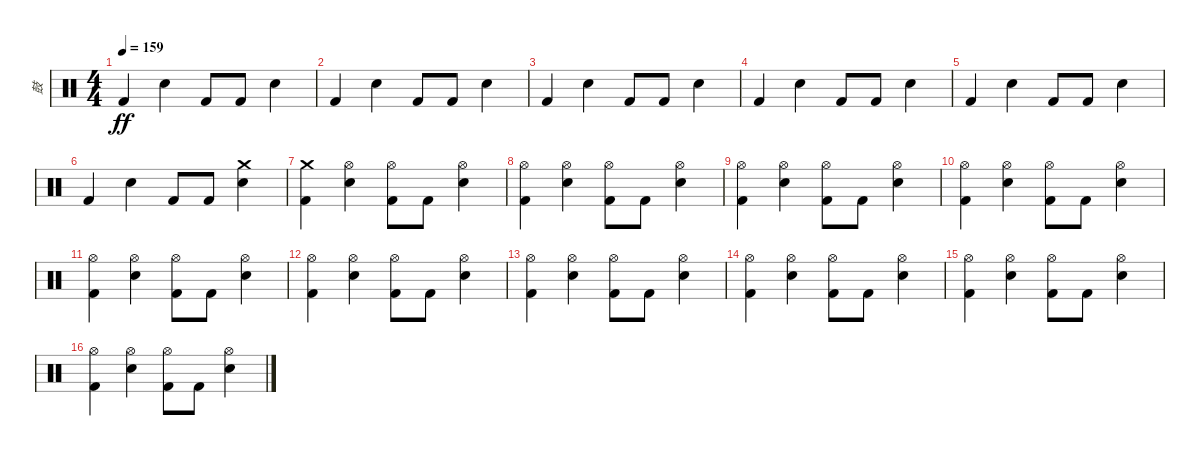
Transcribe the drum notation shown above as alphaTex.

\track ("鼓" "鼓") {instrument percussion}
\staff {score}
\articulation defaults
\ts (4 4)
\tempo 159
\clef neutral
\ks c "Kick (hit) 2".4{dy ff} "Electric Snare (hit)".4 "Kick (hit) 2".8 "Kick (hit) 2".8 "Electric Snare (hit)".4
|
"Kick (hit) 2".4 "Electric Snare (hit)".4 "Kick (hit) 2".8 "Kick (hit) 2".8 "Electric Snare (hit)".4 |
"Kick (hit) 2".4 "Electric Snare (hit)".4 "Kick (hit) 2".8 "Kick (hit) 2".8 "Electric Snare (hit)".4 |
"Kick (hit) 2".4 "Electric Snare (hit)".4 "Kick (hit) 2".8 "Kick (hit) 2".8 "Electric Snare (hit)".4 |
"Kick (hit) 2".4 "Electric Snare (hit)".4 "Kick (hit) 2".8 "Kick (hit) 2".8 "Electric Snare (hit)".4 |
"Kick (hit) 2".4 "Electric Snare (hit)".4 "Kick (hit) 2".8 "Kick (hit) 2".8 ("Crash medium (hit)" "Electric Snare (hit)").4 |
("Crash medium (hit)" "Kick (hit) 2").4 ("Hi-Hat (open)" "Electric Snare (hit)").4 ("Hi-Hat (open)" "Kick (hit) 2").8 "Kick (hit) 2".8 ("Hi-Hat (open)" "Electric Snare (hit)").4 |
("Hi-Hat (open)" "Kick (hit) 2").4 ("Hi-Hat (open)" "Electric Snare (hit)").4 ("Hi-Hat (open)" "Kick (hit) 2").8 "Kick (hit) 2".8 ("Hi-Hat (open)" "Electric Snare (hit)").4 |
("Hi-Hat (open)" "Kick (hit) 2").4 ("Hi-Hat (open)" "Electric Snare (hit)").4 ("Hi-Hat (open)" "Kick (hit) 2").8 "Kick (hit) 2".8 ("Hi-Hat (open)" "Electric Snare (hit)").4 |
("Hi-Hat (open)" "Kick (hit) 2").4 ("Hi-Hat (open)" "Electric Snare (hit)").4 ("Hi-Hat (open)" "Kick (hit) 2").8 "Kick (hit) 2".8 ("Hi-Hat (open)" "Electric Snare (hit)").4 |
("Hi-Hat (open)" "Kick (hit) 2").4 ("Hi-Hat (open)" "Electric Snare (hit)").4 ("Hi-Hat (open)" "Kick (hit) 2").8 "Kick (hit) 2".8 ("Hi-Hat (open)" "Electric Snare (hit)").4 |
("Hi-Hat (open)" "Kick (hit) 2").4 ("Hi-Hat (open)" "Electric Snare (hit)").4 ("Hi-Hat (open)" "Kick (hit) 2").8 "Kick (hit) 2".8 ("Hi-Hat (open)" "Electric Snare (hit)").4 |
("Hi-Hat (open)" "Kick (hit) 2").4 ("Hi-Hat (open)" "Electric Snare (hit)").4 ("Hi-Hat (open)" "Kick (hit) 2").8 "Kick (hit) 2".8 ("Hi-Hat (open)" "Electric Snare (hit)").4 |
("Hi-Hat (open)" "Kick (hit) 2").4 ("Hi-Hat (open)" "Electric Snare (hit)").4 ("Hi-Hat (open)" "Kick (hit) 2").8 "Kick (hit) 2".8 ("Hi-Hat (open)" "Electric Snare (hit)").4 |
("Hi-Hat (open)" "Kick (hit) 2").4 ("Hi-Hat (open)" "Electric Snare (hit)").4 ("Hi-Hat (open)" "Kick (hit) 2").8 "Kick (hit) 2".8 ("Hi-Hat (open)" "Electric Snare (hit)").4 |
("Hi-Hat (open)" "Kick (hit) 2").4 ("Hi-Hat (open)" "Electric Snare (hit)").4 ("Hi-Hat (open)" "Kick (hit) 2").8 "Kick (hit) 2".8 ("Hi-Hat (open)" "Electric Snare (hit)").4
